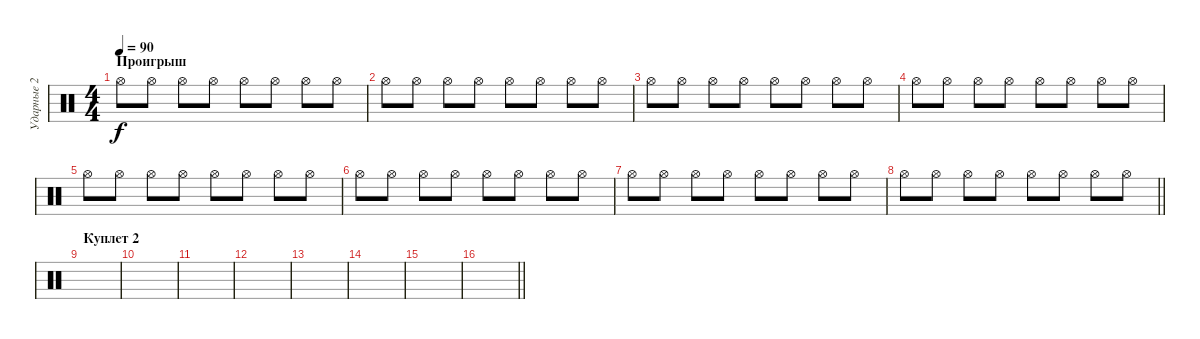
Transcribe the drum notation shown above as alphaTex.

\track ("Ударные 2" "Ударные 2") {instrument percussion}
\staff {score}
\articulation defaults
\ts (4 4)
\section ("" "Проигрыш")
\tempo 90
\clef neutral
\ks c "Hi-Hat (open)".8{dy f} "Hi-Hat (open)".8 "Hi-Hat (open)".8 "Hi-Hat (open)".8 "Hi-Hat (open)".8 "Hi-Hat (open)".8 "Hi-Hat (open)".8 "Hi-Hat (open)".8
|
"Hi-Hat (open)".8 "Hi-Hat (open)".8 "Hi-Hat (open)".8 "Hi-Hat (open)".8 "Hi-Hat (open)".8 "Hi-Hat (open)".8 "Hi-Hat (open)".8 "Hi-Hat (open)".8 |
"Hi-Hat (open)".8 "Hi-Hat (open)".8 "Hi-Hat (open)".8 "Hi-Hat (open)".8 "Hi-Hat (open)".8 "Hi-Hat (open)".8 "Hi-Hat (open)".8 "Hi-Hat (open)".8 |
"Hi-Hat (open)".8 "Hi-Hat (open)".8 "Hi-Hat (open)".8 "Hi-Hat (open)".8 "Hi-Hat (open)".8 "Hi-Hat (open)".8 "Hi-Hat (open)".8 "Hi-Hat (open)".8 |
"Hi-Hat (open)".8 "Hi-Hat (open)".8 "Hi-Hat (open)".8 "Hi-Hat (open)".8 "Hi-Hat (open)".8 "Hi-Hat (open)".8 "Hi-Hat (open)".8 "Hi-Hat (open)".8 |
"Hi-Hat (open)".8 "Hi-Hat (open)".8 "Hi-Hat (open)".8 "Hi-Hat (open)".8 "Hi-Hat (open)".8 "Hi-Hat (open)".8 "Hi-Hat (open)".8 "Hi-Hat (open)".8 |
"Hi-Hat (open)".8 "Hi-Hat (open)".8 "Hi-Hat (open)".8 "Hi-Hat (open)".8 "Hi-Hat (open)".8 "Hi-Hat (open)".8 "Hi-Hat (open)".8 "Hi-Hat (open)".8 |
\barLineRight lightlight "Hi-Hat (open)".8 "Hi-Hat (open)".8 "Hi-Hat (open)".8 "Hi-Hat (open)".8 "Hi-Hat (open)".8 "Hi-Hat (open)".8 "Hi-Hat (open)".8 "Hi-Hat (open)".8
|
\section ("" "Куплет 2")
|
|
|
|
|
|
|
\barLineRight lightlight
